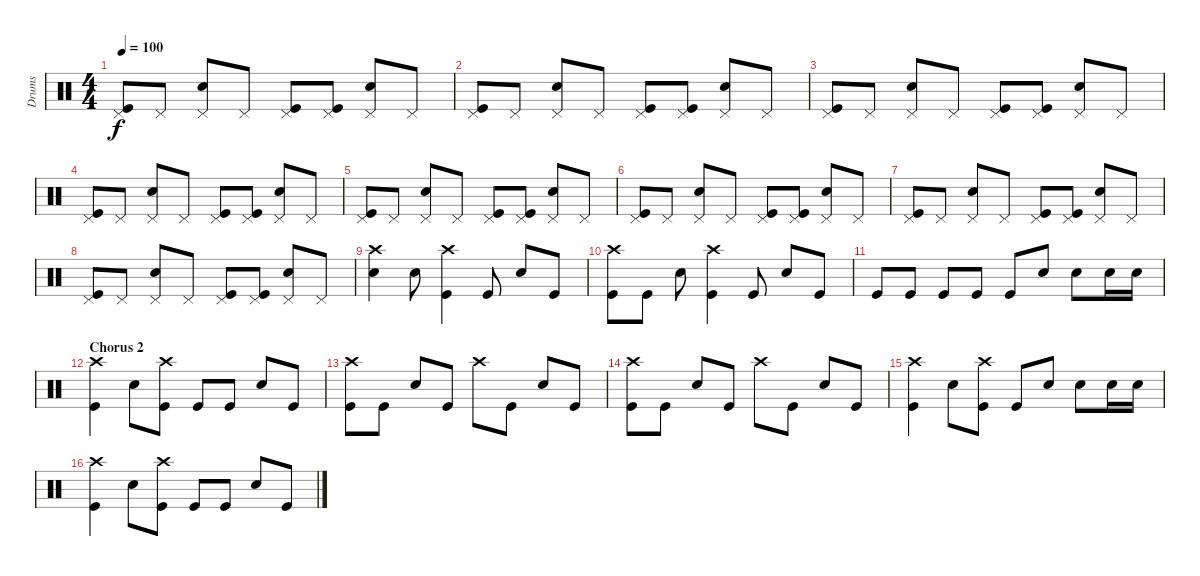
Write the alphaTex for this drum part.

\track ("Drums" "Drums") {instrument percussion}
\staff {score}
\articulation defaults
\ts (4 4)
\tempo 100
\clef neutral
\ks c
("Pedal Hi-Hat (hit)" "Kick (hit)").8{dy f} "Pedal Hi-Hat (hit)".8 ("Pedal Hi-Hat (hit)" "Snare (hit) 2").8 "Pedal Hi-Hat (hit)".8 ("Pedal Hi-Hat (hit)" "Kick (hit)").8 ("Pedal Hi-Hat (hit)" "Kick (hit)").8 ("Pedal Hi-Hat (hit)" "Snare (hit) 2").8 "Pedal Hi-Hat (hit)".8 |
("Pedal Hi-Hat (hit)" "Kick (hit)").8 "Pedal Hi-Hat (hit)".8 ("Pedal Hi-Hat (hit)" "Snare (hit) 2").8 "Pedal Hi-Hat (hit)".8 ("Pedal Hi-Hat (hit)" "Kick (hit)").8 ("Pedal Hi-Hat (hit)" "Kick (hit)").8 ("Pedal Hi-Hat (hit)" "Snare (hit) 2").8 "Pedal Hi-Hat (hit)".8 |
("Pedal Hi-Hat (hit)" "Kick (hit)").8 "Pedal Hi-Hat (hit)".8 ("Pedal Hi-Hat (hit)" "Snare (hit) 2").8 "Pedal Hi-Hat (hit)".8 ("Pedal Hi-Hat (hit)" "Kick (hit)").8 ("Pedal Hi-Hat (hit)" "Kick (hit)").8 ("Pedal Hi-Hat (hit)" "Snare (hit) 2").8 "Pedal Hi-Hat (hit)".8 |
("Pedal Hi-Hat (hit)" "Kick (hit)").8 "Pedal Hi-Hat (hit)".8 ("Pedal Hi-Hat (hit)" "Snare (hit) 2").8 "Pedal Hi-Hat (hit)".8 ("Pedal Hi-Hat (hit)" "Kick (hit)").8 ("Pedal Hi-Hat (hit)" "Kick (hit)").8 ("Pedal Hi-Hat (hit)" "Snare (hit) 2").8 "Pedal Hi-Hat (hit)".8 |
("Pedal Hi-Hat (hit)" "Kick (hit)").8 "Pedal Hi-Hat (hit)".8 ("Pedal Hi-Hat (hit)" "Snare (hit) 2").8 "Pedal Hi-Hat (hit)".8 ("Pedal Hi-Hat (hit)" "Kick (hit)").8 ("Pedal Hi-Hat (hit)" "Kick (hit)").8 ("Pedal Hi-Hat (hit)" "Snare (hit) 2").8 "Pedal Hi-Hat (hit)".8 |
("Pedal Hi-Hat (hit)" "Kick (hit)").8 "Pedal Hi-Hat (hit)".8 ("Pedal Hi-Hat (hit)" "Snare (hit) 2").8 "Pedal Hi-Hat (hit)".8 ("Pedal Hi-Hat (hit)" "Kick (hit)").8 ("Pedal Hi-Hat (hit)" "Kick (hit)").8 ("Pedal Hi-Hat (hit)" "Snare (hit) 2").8 "Pedal Hi-Hat (hit)".8 |
("Pedal Hi-Hat (hit)" "Kick (hit)").8 "Pedal Hi-Hat (hit)".8 ("Pedal Hi-Hat (hit)" "Snare (hit) 2").8 "Pedal Hi-Hat (hit)".8 ("Pedal Hi-Hat (hit)" "Kick (hit)").8 ("Pedal Hi-Hat (hit)" "Kick (hit)").8 ("Pedal Hi-Hat (hit)" "Snare (hit) 2").8 "Pedal Hi-Hat (hit)".8 |
("Pedal Hi-Hat (hit)" "Kick (hit)").8 "Pedal Hi-Hat (hit)".8 ("Pedal Hi-Hat (hit)" "Snare (hit) 2").8 "Pedal Hi-Hat (hit)".8 ("Pedal Hi-Hat (hit)" "Kick (hit)").8 ("Pedal Hi-Hat (hit)" "Kick (hit)").8 ("Pedal Hi-Hat (hit)" "Snare (hit) 2").8 "Pedal Hi-Hat (hit)".8 |
("Crash high (hit)" "Snare (hit) 2").4 "Snare (hit) 2".8 ("Crash high (hit)" "Kick (hit)").4 "Kick (hit)".8 "Snare (hit) 2".8 "Kick (hit)".8 |
("Crash high (hit)" "Kick (hit)").8 "Kick (hit)".8 "Snare (hit) 2".8 ("Crash high (hit)" "Kick (hit)").4 "Kick (hit)".8 "Snare (hit) 2".8 "Kick (hit)".8 |
"Kick (hit)".8 "Kick (hit)".8 "Kick (hit)".8 "Kick (hit)".8 "Kick (hit)".8 "Snare (hit) 2".8 "Snare (hit) 2".8 "Snare (hit) 2".16 "Snare (hit) 2".16 |
\section ("" "Chorus 2")
("Crash high (hit)" "Kick (hit)").4 "Snare (hit) 2".8 ("Crash high (hit)" "Kick (hit)").8 "Kick (hit)".8 "Kick (hit)".8 "Snare (hit) 2".8 "Kick (hit)".8 |
("Crash high (hit)" "Kick (hit)").8 "Kick (hit)".8 "Snare (hit) 2".8 "Kick (hit)".8 "Crash high (hit)".8 "Kick (hit)".8 "Snare (hit) 2".8 "Kick (hit)".8 |
("Crash high (hit)" "Kick (hit)").8 "Kick (hit)".8 "Snare (hit) 2".8 "Kick (hit)".8 "Crash high (hit)".8 "Kick (hit)".8 "Snare (hit) 2".8 "Kick (hit)".8 |
("Crash high (hit)" "Kick (hit)").4 "Snare (hit) 2".8 ("Crash high (hit)" "Kick (hit)").8 "Kick (hit)".8 "Snare (hit) 2".8 "Snare (hit) 2".8 "Snare (hit) 2".16 "Snare (hit) 2".16 |
("Crash high (hit)" "Kick (hit)").4 "Snare (hit) 2".8 ("Crash high (hit)" "Kick (hit)").8 "Kick (hit)".8 "Kick (hit)".8 "Snare (hit) 2".8 "Kick (hit)".8
